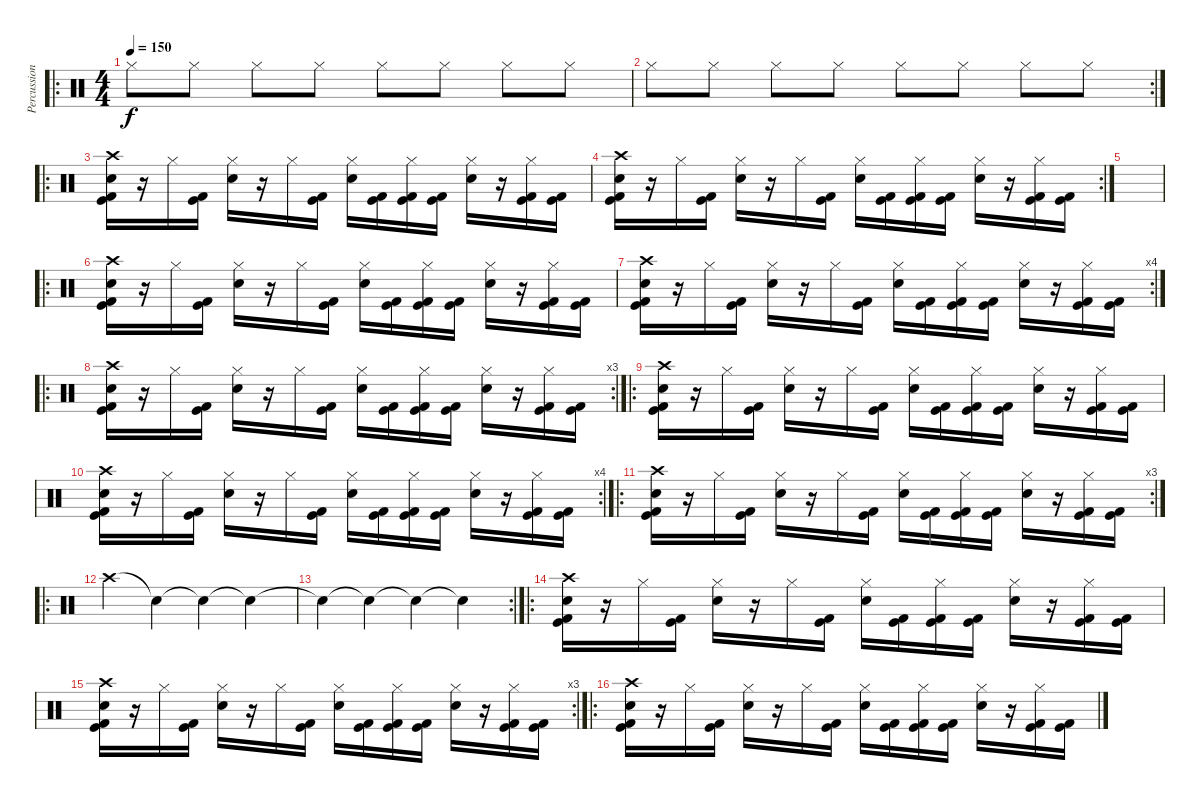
\track ("Percussions" "Percussion") {instrument percussion}
\staff {score}
\articulation defaults
\ro
\ts (4 4)
\tempo 150
\clef neutral
\ks c "Hi-Hat (closed)".8{dy f} "Hi-Hat (closed)".8 "Hi-Hat (closed)".8 "Hi-Hat (closed)".8 "Hi-Hat (closed)".8 "Hi-Hat (closed)".8 "Hi-Hat (closed)".8 "Hi-Hat (closed)".8
|
\rc 2 "Hi-Hat (closed)".8 "Hi-Hat (closed)".8 "Hi-Hat (closed)".8 "Hi-Hat (closed)".8 "Hi-Hat (closed)".8 "Hi-Hat (closed)".8 "Hi-Hat (closed)".8 "Hi-Hat (closed)".8
|
\ro
("Crash high (hit)" "Electric Snare (hit)" "Kick (hit) 2" "Kick (hit)").16 r.16 "Hi-Hat (closed)".16 ("Kick (hit)" "Kick (hit) 2").16 ("Hi-Hat (closed)" "Electric Snare (hit)").16 r.16 "Hi-Hat (closed)".16 ("Kick (hit) 2" "Kick (hit)").16 ("Hi-Hat (closed)" "Electric Snare (hit)").16 ("Kick (hit) 2" "Kick (hit)").16 ("Hi-Hat (closed)" "Kick (hit) 2" "Kick (hit)").16 ("Kick (hit) 2" "Kick (hit)").16 ("Hi-Hat (closed)" "Electric Snare (hit)").16 r.16 ("Hi-Hat (closed)" "Kick (hit) 2" "Kick (hit)").16 ("Kick (hit) 2" "Kick (hit)").16 |
\rc 2
("Crash high (hit)" "Electric Snare (hit)" "Kick (hit) 2" "Kick (hit)").16 r.16 "Hi-Hat (closed)".16 ("Kick (hit)" "Kick (hit) 2").16 ("Hi-Hat (closed)" "Electric Snare (hit)").16 r.16 "Hi-Hat (closed)".16 ("Kick (hit) 2" "Kick (hit)").16 ("Hi-Hat (closed)" "Electric Snare (hit)").16 ("Kick (hit) 2" "Kick (hit)").16 ("Hi-Hat (closed)" "Kick (hit) 2" "Kick (hit)").16 ("Kick (hit) 2" "Kick (hit)").16 ("Hi-Hat (closed)" "Electric Snare (hit)").16 r.16 ("Hi-Hat (closed)" "Kick (hit) 2" "Kick (hit)").16 ("Kick (hit) 2" "Kick (hit)").16 |
|
\ro
("Crash high (hit)" "Electric Snare (hit)" "Kick (hit) 2" "Kick (hit)").16 r.16 "Hi-Hat (closed)".16 ("Kick (hit)" "Kick (hit) 2").16 ("Hi-Hat (closed)" "Electric Snare (hit)").16 r.16 "Hi-Hat (closed)".16 ("Kick (hit) 2" "Kick (hit)").16 ("Hi-Hat (closed)" "Electric Snare (hit)").16 ("Kick (hit) 2" "Kick (hit)").16 ("Hi-Hat (closed)" "Kick (hit) 2" "Kick (hit)").16 ("Kick (hit) 2" "Kick (hit)").16 ("Hi-Hat (closed)" "Electric Snare (hit)").16 r.16 ("Hi-Hat (closed)" "Kick (hit) 2" "Kick (hit)").16 ("Kick (hit) 2" "Kick (hit)").16 |
\rc 4
("Crash high (hit)" "Electric Snare (hit)" "Kick (hit) 2" "Kick (hit)").16 r.16 "Hi-Hat (closed)".16 ("Kick (hit)" "Kick (hit) 2").16 ("Hi-Hat (closed)" "Electric Snare (hit)").16 r.16 "Hi-Hat (closed)".16 ("Kick (hit) 2" "Kick (hit)").16 ("Hi-Hat (closed)" "Electric Snare (hit)").16 ("Kick (hit) 2" "Kick (hit)").16 ("Hi-Hat (closed)" "Kick (hit) 2" "Kick (hit)").16 ("Kick (hit) 2" "Kick (hit)").16 ("Hi-Hat (closed)" "Electric Snare (hit)").16 r.16 ("Hi-Hat (closed)" "Kick (hit) 2" "Kick (hit)").16 ("Kick (hit) 2" "Kick (hit)").16 |
\ro
\rc 3
("Crash high (hit)" "Electric Snare (hit)" "Kick (hit) 2" "Kick (hit)").16 r.16 "Hi-Hat (closed)".16 ("Kick (hit)" "Kick (hit) 2").16 ("Hi-Hat (closed)" "Electric Snare (hit)").16 r.16 "Hi-Hat (closed)".16 ("Kick (hit) 2" "Kick (hit)").16 ("Hi-Hat (closed)" "Electric Snare (hit)").16 ("Kick (hit) 2" "Kick (hit)").16 ("Hi-Hat (closed)" "Kick (hit) 2" "Kick (hit)").16 ("Kick (hit) 2" "Kick (hit)").16 ("Hi-Hat (closed)" "Electric Snare (hit)").16 r.16 ("Hi-Hat (closed)" "Kick (hit) 2" "Kick (hit)").16 ("Kick (hit) 2" "Kick (hit)").16 |
\ro
("Crash high (hit)" "Electric Snare (hit)" "Kick (hit) 2" "Kick (hit)").16 r.16 "Hi-Hat (closed)".16 ("Kick (hit)" "Kick (hit) 2").16 ("Hi-Hat (closed)" "Electric Snare (hit)").16 r.16 "Hi-Hat (closed)".16 ("Kick (hit) 2" "Kick (hit)").16 ("Hi-Hat (closed)" "Electric Snare (hit)").16 ("Kick (hit) 2" "Kick (hit)").16 ("Hi-Hat (closed)" "Kick (hit) 2" "Kick (hit)").16 ("Kick (hit) 2" "Kick (hit)").16 ("Hi-Hat (closed)" "Electric Snare (hit)").16 r.16 ("Hi-Hat (closed)" "Kick (hit) 2" "Kick (hit)").16 ("Kick (hit) 2" "Kick (hit)").16 |
\rc 4
("Crash high (hit)" "Electric Snare (hit)" "Kick (hit) 2" "Kick (hit)").16 r.16 "Hi-Hat (closed)".16 ("Kick (hit)" "Kick (hit) 2").16 ("Hi-Hat (closed)" "Electric Snare (hit)").16 r.16 "Hi-Hat (closed)".16 ("Kick (hit) 2" "Kick (hit)").16 ("Hi-Hat (closed)" "Electric Snare (hit)").16 ("Kick (hit) 2" "Kick (hit)").16 ("Hi-Hat (closed)" "Kick (hit) 2" "Kick (hit)").16 ("Kick (hit) 2" "Kick (hit)").16 ("Hi-Hat (closed)" "Electric Snare (hit)").16 r.16 ("Hi-Hat (closed)" "Kick (hit) 2" "Kick (hit)").16 ("Kick (hit) 2" "Kick (hit)").16 |
\ro
\rc 3
("Crash high (hit)" "Electric Snare (hit)" "Kick (hit) 2" "Kick (hit)").16 r.16 "Hi-Hat (closed)".16 ("Kick (hit)" "Kick (hit) 2").16 ("Hi-Hat (closed)" "Electric Snare (hit)").16 r.16 "Hi-Hat (closed)".16 ("Kick (hit) 2" "Kick (hit)").16 ("Hi-Hat (closed)" "Electric Snare (hit)").16 ("Kick (hit) 2" "Kick (hit)").16 ("Hi-Hat (closed)" "Kick (hit) 2" "Kick (hit)").16 ("Kick (hit) 2" "Kick (hit)").16 ("Hi-Hat (closed)" "Electric Snare (hit)").16 r.16 ("Hi-Hat (closed)" "Kick (hit) 2" "Kick (hit)").16 ("Kick (hit) 2" "Kick (hit)").16 |
\ro "Crash high (hit)".4 "Snare (hit)"{t}.4 "Snare (hit)"{t}.4 "Snare (hit)"{t}.4
|
\rc 2 "Snare (hit)"{t}.4 "Snare (hit)"{t}.4 "Snare (hit)"{t}.4 "Snare (hit)"{t}.4
|
\ro
("Crash high (hit)" "Electric Snare (hit)" "Kick (hit) 2" "Kick (hit)").16 r.16 "Hi-Hat (closed)".16 ("Kick (hit)" "Kick (hit) 2").16 ("Hi-Hat (closed)" "Electric Snare (hit)").16 r.16 "Hi-Hat (closed)".16 ("Kick (hit) 2" "Kick (hit)").16 ("Hi-Hat (closed)" "Electric Snare (hit)").16 ("Kick (hit) 2" "Kick (hit)").16 ("Hi-Hat (closed)" "Kick (hit) 2" "Kick (hit)").16 ("Kick (hit) 2" "Kick (hit)").16 ("Hi-Hat (closed)" "Electric Snare (hit)").16 r.16 ("Hi-Hat (closed)" "Kick (hit) 2" "Kick (hit)").16 ("Kick (hit) 2" "Kick (hit)").16 |
\rc 3
("Crash high (hit)" "Electric Snare (hit)" "Kick (hit) 2" "Kick (hit)").16 r.16 "Hi-Hat (closed)".16 ("Kick (hit)" "Kick (hit) 2").16 ("Hi-Hat (closed)" "Electric Snare (hit)").16 r.16 "Hi-Hat (closed)".16 ("Kick (hit) 2" "Kick (hit)").16 ("Hi-Hat (closed)" "Electric Snare (hit)").16 ("Kick (hit) 2" "Kick (hit)").16 ("Hi-Hat (closed)" "Kick (hit) 2" "Kick (hit)").16 ("Kick (hit) 2" "Kick (hit)").16 ("Hi-Hat (closed)" "Electric Snare (hit)").16 r.16 ("Hi-Hat (closed)" "Kick (hit) 2" "Kick (hit)").16 ("Kick (hit) 2" "Kick (hit)").16 |
\ro
("Crash high (hit)" "Electric Snare (hit)" "Kick (hit) 2" "Kick (hit)").16 r.16 "Hi-Hat (closed)".16 ("Kick (hit)" "Kick (hit) 2").16 ("Hi-Hat (closed)" "Electric Snare (hit)").16 r.16 "Hi-Hat (closed)".16 ("Kick (hit) 2" "Kick (hit)").16 ("Hi-Hat (closed)" "Electric Snare (hit)").16 ("Kick (hit) 2" "Kick (hit)").16 ("Hi-Hat (closed)" "Kick (hit) 2" "Kick (hit)").16 ("Kick (hit) 2" "Kick (hit)").16 ("Hi-Hat (closed)" "Electric Snare (hit)").16 r.16 ("Hi-Hat (closed)" "Kick (hit) 2" "Kick (hit)").16 ("Kick (hit) 2" "Kick (hit)").16
